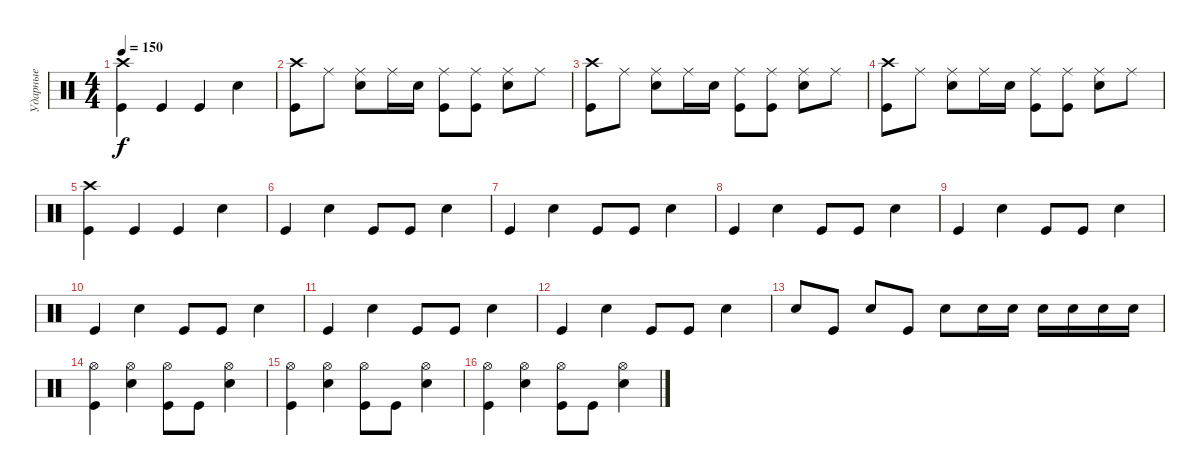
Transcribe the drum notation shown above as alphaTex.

\track ("Ударные" "Ударные") {instrument percussion}
\staff {score}
\articulation defaults
\ts (4 4)
\tempo 150
\clef neutral
\ks c
("Crash high (hit)" "Kick (hit)").4{dy f} "Kick (hit)".4 "Kick (hit)".4 "Snare (hit) 2".4 |
("Crash high (hit)" "Kick (hit)").8 "Ride (middle)".8 ("Ride (middle)" "Snare (hit) 2").8 "Ride (middle)".16 "Snare (hit) 2".16 ("Ride (middle)" "Kick (hit)").8 ("Ride (middle)" "Kick (hit)").8 ("Ride (middle)" "Snare (hit) 2").8 "Ride (middle)".8 |
("Crash high (hit)" "Kick (hit)").8 "Ride (middle)".8 ("Ride (middle)" "Snare (hit) 2").8 "Ride (middle)".16 "Snare (hit) 2".16 ("Ride (middle)" "Kick (hit)").8 ("Ride (middle)" "Kick (hit)").8 ("Ride (middle)" "Snare (hit) 2").8 "Ride (middle)".8 |
("Crash high (hit)" "Kick (hit)").8 "Ride (middle)".8 ("Ride (middle)" "Snare (hit) 2").8 "Ride (middle)".16 "Snare (hit) 2".16 ("Ride (middle)" "Kick (hit)").8 ("Ride (middle)" "Kick (hit)").8 ("Ride (middle)" "Snare (hit) 2").8 "Ride (middle)".8 |
("Crash high (hit)" "Kick (hit)").4 "Kick (hit)".4 "Kick (hit)".4 "Snare (hit) 2".4 |
"Kick (hit)".4 "Snare (hit) 2".4 "Kick (hit)".8 "Kick (hit)".8 "Snare (hit) 2".4 |
"Kick (hit)".4 "Snare (hit) 2".4 "Kick (hit)".8 "Kick (hit)".8 "Snare (hit) 2".4 |
"Kick (hit)".4 "Snare (hit) 2".4 "Kick (hit)".8 "Kick (hit)".8 "Snare (hit) 2".4 |
"Kick (hit)".4 "Snare (hit) 2".4 "Kick (hit)".8 "Kick (hit)".8 "Snare (hit) 2".4 |
"Kick (hit)".4 "Snare (hit) 2".4 "Kick (hit)".8 "Kick (hit)".8 "Snare (hit) 2".4 |
"Kick (hit)".4 "Snare (hit) 2".4 "Kick (hit)".8 "Kick (hit)".8 "Snare (hit) 2".4 |
"Kick (hit)".4 "Snare (hit) 2".4 "Kick (hit)".8 "Kick (hit)".8 "Snare (hit) 2".4 |
"Snare (hit) 2".8 "Kick (hit)".8 "Snare (hit) 2".8 "Kick (hit)".8 "Snare (hit) 2".8 "Snare (hit) 2".16 "Snare (hit) 2".16 "Snare (hit) 2".16 "Snare (hit) 2".16 "Snare (hit) 2".16 "Snare (hit) 2".16 |
("Hi-Hat (open)" "Kick (hit)").4 ("Hi-Hat (open)" "Snare (hit) 2").4 ("Hi-Hat (open)" "Kick (hit)").8 "Kick (hit)".8 ("Hi-Hat (open)" "Snare (hit) 2").4 |
("Hi-Hat (open)" "Kick (hit)").4 ("Hi-Hat (open)" "Snare (hit) 2").4 ("Hi-Hat (open)" "Kick (hit)").8 "Kick (hit)".8 ("Hi-Hat (open)" "Snare (hit) 2").4 |
("Hi-Hat (open)" "Kick (hit)").4 ("Hi-Hat (open)" "Snare (hit) 2").4 ("Hi-Hat (open)" "Kick (hit)").8 "Kick (hit)".8 ("Hi-Hat (open)" "Snare (hit) 2").4
